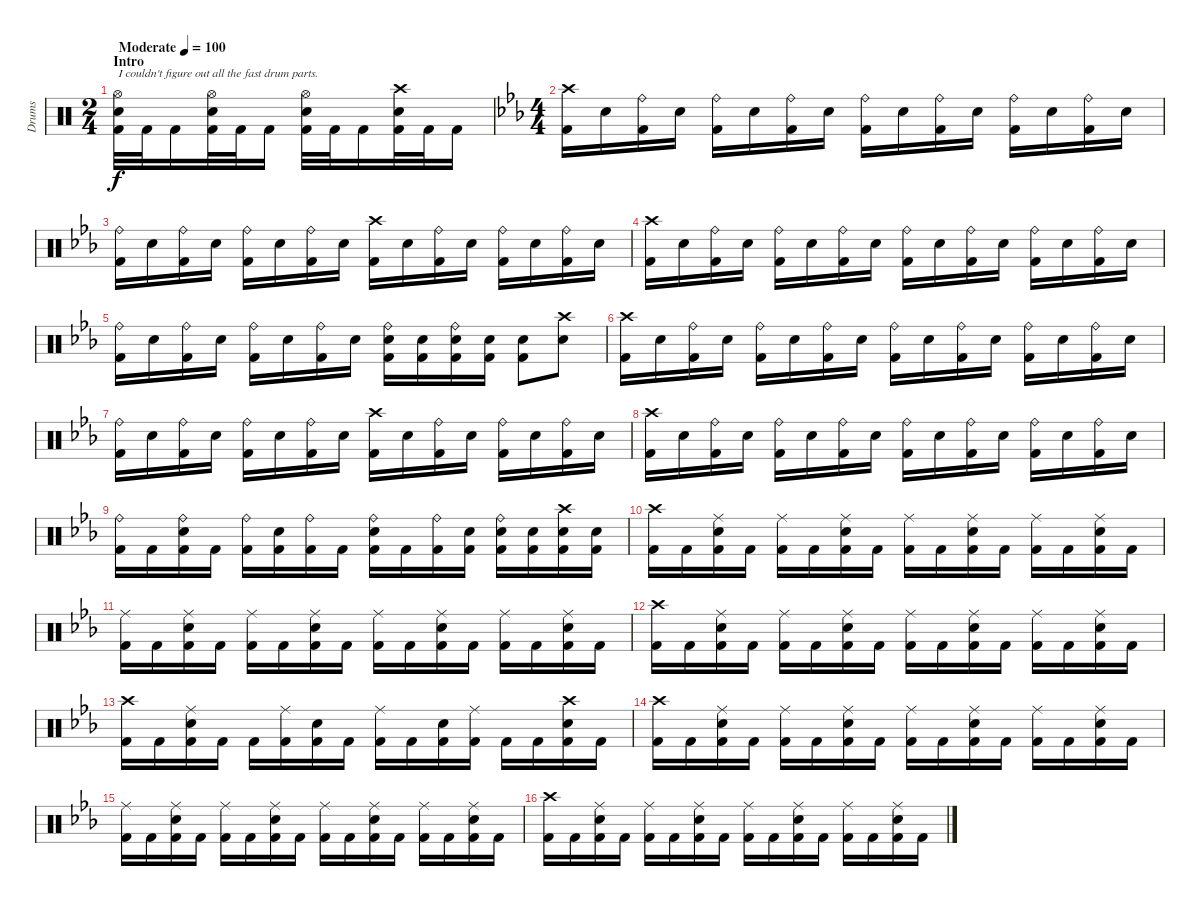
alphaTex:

\track ("Drums" "Drums") {instrument percussion}
\staff {score}
\articulation defaults
\ts (2 4)
\section ("" "Intro")
\tempo (100 "Moderate")
\clef neutral
\ks c
("Kick (hit) 2" "Snare (hit) 2" "Hi-Hat (open)").32{txt "I couldn't figure out all the fast drum parts." dy f} "Kick (hit) 2".32 "Kick (hit) 2".16 ("Kick (hit) 2" "Snare (hit) 2" "Hi-Hat (open)").32 "Kick (hit) 2".32 "Kick (hit) 2".16 ("Kick (hit) 2" "Snare (hit) 2" "Hi-Hat (open)").32 "Kick (hit) 2".32 "Kick (hit) 2".16 ("Kick (hit) 2" "Snare (hit) 2" "Crash high (hit)").32 "Kick (hit) 2".32 "Kick (hit) 2".16 |
\ts (4 4)
\ks eb
("Kick (hit) 2" "Crash high (hit)").16 "Snare (hit) 2".16 ("Kick (hit) 2" "Ride (bell)").16 "Snare (hit) 2".16 ("Kick (hit) 2" "Ride (bell)").16 "Snare (hit) 2".16 ("Kick (hit) 2" "Ride (bell)").16 "Snare (hit) 2".16 ("Kick (hit) 2" "Ride (bell)").16 "Snare (hit) 2".16 ("Kick (hit) 2" "Ride (bell)").16 "Snare (hit) 2".16 ("Kick (hit) 2" "Ride (bell)").16 "Snare (hit) 2".16 ("Kick (hit) 2" "Ride (bell)").16 "Snare (hit) 2".16 |
("Kick (hit) 2" "Ride (bell)").16 "Snare (hit) 2".16 ("Kick (hit) 2" "Ride (bell)").16 "Snare (hit) 2".16 ("Kick (hit) 2" "Ride (bell)").16 "Snare (hit) 2".16 ("Kick (hit) 2" "Ride (bell)").16 "Snare (hit) 2".16 ("Kick (hit) 2" "Crash high (hit)").16 "Snare (hit) 2".16 ("Kick (hit) 2" "Ride (bell)").16 "Snare (hit) 2".16 ("Kick (hit) 2" "Ride (bell)").16 "Snare (hit) 2".16 ("Kick (hit) 2" "Ride (bell)").16 "Snare (hit) 2".16 |
("Kick (hit) 2" "Crash high (hit)").16 "Snare (hit) 2".16 ("Kick (hit) 2" "Ride (bell)").16 "Snare (hit) 2".16 ("Kick (hit) 2" "Ride (bell)").16 "Snare (hit) 2".16 ("Kick (hit) 2" "Ride (bell)").16 "Snare (hit) 2".16 ("Kick (hit) 2" "Ride (bell)").16 "Snare (hit) 2".16 ("Kick (hit) 2" "Ride (bell)").16 "Snare (hit) 2".16 ("Kick (hit) 2" "Ride (bell)").16 "Snare (hit) 2".16 ("Kick (hit) 2" "Ride (bell)").16 "Snare (hit) 2".16 |
("Kick (hit) 2" "Ride (bell)").16 "Snare (hit) 2".16 ("Kick (hit) 2" "Ride (bell)").16 "Snare (hit) 2".16 ("Kick (hit) 2" "Ride (bell)").16 "Snare (hit) 2".16 ("Kick (hit) 2" "Ride (bell)").16 "Snare (hit) 2".16 ("Kick (hit) 2" "Ride (bell)" "Snare (hit) 2").16 ("Snare (hit) 2" "Kick (hit) 2").16 ("Kick (hit) 2" "Ride (bell)" "Snare (hit) 2").16 ("Snare (hit) 2" "Kick (hit) 2").16 ("Kick (hit) 2" "Snare (hit) 2").8 ("Snare (hit) 2" "Crash high (hit)").8 |
("Kick (hit) 2" "Crash high (hit)").16 "Snare (hit) 2".16 ("Kick (hit) 2" "Ride (bell)").16 "Snare (hit) 2".16 ("Kick (hit) 2" "Ride (bell)").16 "Snare (hit) 2".16 ("Kick (hit) 2" "Ride (bell)").16 "Snare (hit) 2".16 ("Kick (hit) 2" "Ride (bell)").16 "Snare (hit) 2".16 ("Kick (hit) 2" "Ride (bell)").16 "Snare (hit) 2".16 ("Kick (hit) 2" "Ride (bell)").16 "Snare (hit) 2".16 ("Kick (hit) 2" "Ride (bell)").16 "Snare (hit) 2".16 |
("Kick (hit) 2" "Ride (bell)").16 "Snare (hit) 2".16 ("Kick (hit) 2" "Ride (bell)").16 "Snare (hit) 2".16 ("Kick (hit) 2" "Ride (bell)").16 "Snare (hit) 2".16 ("Kick (hit) 2" "Ride (bell)").16 "Snare (hit) 2".16 ("Kick (hit) 2" "Crash high (hit)").16 "Snare (hit) 2".16 ("Kick (hit) 2" "Ride (bell)").16 "Snare (hit) 2".16 ("Kick (hit) 2" "Ride (bell)").16 "Snare (hit) 2".16 ("Kick (hit) 2" "Ride (bell)").16 "Snare (hit) 2".16 |
("Kick (hit) 2" "Crash high (hit)").16 "Snare (hit) 2".16 ("Kick (hit) 2" "Ride (bell)").16 "Snare (hit) 2".16 ("Kick (hit) 2" "Ride (bell)").16 "Snare (hit) 2".16 ("Kick (hit) 2" "Ride (bell)").16 "Snare (hit) 2".16 ("Kick (hit) 2" "Ride (bell)").16 "Snare (hit) 2".16 ("Kick (hit) 2" "Ride (bell)").16 "Snare (hit) 2".16 ("Kick (hit) 2" "Ride (bell)").16 "Snare (hit) 2".16 ("Kick (hit) 2" "Ride (bell)").16 "Snare (hit) 2".16 |
("Kick (hit) 2" "Ride (bell)").16 "Kick (hit) 2".16 ("Kick (hit) 2" "Ride (bell)" "Snare (hit) 2").16 "Kick (hit) 2".16 ("Kick (hit) 2" "Ride (bell)").16 ("Snare (hit) 2" "Kick (hit) 2").16 ("Kick (hit) 2" "Ride (bell)").16 "Kick (hit) 2".16 ("Kick (hit) 2" "Ride (bell)" "Snare (hit) 2").16 "Kick (hit) 2".16 ("Kick (hit) 2" "Ride (bell)").16 ("Snare (hit) 2" "Kick (hit) 2").16 ("Kick (hit) 2" "Ride (bell)" "Snare (hit) 2").16 ("Kick (hit) 2" "Snare (hit) 2").16 ("Kick (hit) 2" "Snare (hit) 2" "Crash high (hit)").16 ("Kick (hit) 2" "Snare (hit) 2").16 |
("Kick (hit) 2" "Crash high (hit)").16 "Kick (hit) 2".16 ("Kick (hit) 2" "Snare (hit) 2" "Ride (middle)").16 "Kick (hit) 2".16 ("Kick (hit) 2" "Ride (middle)").16 "Kick (hit) 2".16 ("Kick (hit) 2" "Snare (hit) 2" "Ride (middle)").16 "Kick (hit) 2".16 ("Kick (hit) 2" "Ride (middle)").16 "Kick (hit) 2".16 ("Kick (hit) 2" "Snare (hit) 2" "Ride (middle)").16 "Kick (hit) 2".16 ("Kick (hit) 2" "Ride (middle)").16 "Kick (hit) 2".16 ("Kick (hit) 2" "Snare (hit) 2" "Ride (middle)").16 "Kick (hit) 2".16 |
("Kick (hit) 2" "Ride (middle)").16 "Kick (hit) 2".16 ("Kick (hit) 2" "Snare (hit) 2" "Ride (middle)").16 "Kick (hit) 2".16 ("Kick (hit) 2" "Ride (middle)").16 "Kick (hit) 2".16 ("Kick (hit) 2" "Snare (hit) 2" "Ride (middle)").16 "Kick (hit) 2".16 ("Kick (hit) 2" "Ride (middle)").16 "Kick (hit) 2".16 ("Kick (hit) 2" "Snare (hit) 2" "Ride (middle)").16 "Kick (hit) 2".16 ("Kick (hit) 2" "Ride (middle)").16 "Kick (hit) 2".16 ("Kick (hit) 2" "Snare (hit) 2" "Ride (middle)").16 "Kick (hit) 2".16 |
("Kick (hit) 2" "Crash high (hit)").16 "Kick (hit) 2".16 ("Kick (hit) 2" "Snare (hit) 2" "Ride (middle)").16 "Kick (hit) 2".16 ("Kick (hit) 2" "Ride (middle)").16 "Kick (hit) 2".16 ("Kick (hit) 2" "Snare (hit) 2" "Ride (middle)").16 "Kick (hit) 2".16 ("Kick (hit) 2" "Ride (middle)").16 "Kick (hit) 2".16 ("Kick (hit) 2" "Snare (hit) 2" "Ride (middle)").16 "Kick (hit) 2".16 ("Kick (hit) 2" "Ride (middle)").16 "Kick (hit) 2".16 ("Kick (hit) 2" "Snare (hit) 2" "Ride (middle)").16 "Kick (hit) 2".16 |
("Kick (hit) 2" "Crash high (hit)").16 "Kick (hit) 2".16 ("Kick (hit) 2" "Snare (hit) 2" "Ride (middle)").16 "Kick (hit) 2".16 "Kick (hit) 2".16 ("Kick (hit) 2" "Ride (middle)").16 ("Kick (hit) 2" "Snare (hit) 2").16 "Kick (hit) 2".16 ("Kick (hit) 2" "Ride (middle)").16 "Kick (hit) 2".16 ("Kick (hit) 2" "Snare (hit) 2").16 ("Kick (hit) 2" "Ride (middle)").16 "Kick (hit) 2".16 "Kick (hit) 2".16 ("Kick (hit) 2" "Snare (hit) 2" "Crash high (hit)").16 "Kick (hit) 2".16 |
("Kick (hit) 2" "Crash high (hit)").16 "Kick (hit) 2".16 ("Kick (hit) 2" "Snare (hit) 2" "Ride (middle)").16 "Kick (hit) 2".16 ("Kick (hit) 2" "Ride (middle)").16 "Kick (hit) 2".16 ("Kick (hit) 2" "Snare (hit) 2" "Ride (middle)").16 "Kick (hit) 2".16 ("Kick (hit) 2" "Ride (middle)").16 "Kick (hit) 2".16 ("Kick (hit) 2" "Snare (hit) 2" "Ride (middle)").16 "Kick (hit) 2".16 ("Kick (hit) 2" "Ride (middle)").16 "Kick (hit) 2".16 ("Kick (hit) 2" "Snare (hit) 2" "Ride (middle)").16 "Kick (hit) 2".16 |
("Kick (hit) 2" "Ride (middle)").16 "Kick (hit) 2".16 ("Kick (hit) 2" "Snare (hit) 2" "Ride (middle)").16 "Kick (hit) 2".16 ("Kick (hit) 2" "Ride (middle)").16 "Kick (hit) 2".16 ("Kick (hit) 2" "Snare (hit) 2" "Ride (middle)").16 "Kick (hit) 2".16 ("Kick (hit) 2" "Ride (middle)").16 "Kick (hit) 2".16 ("Kick (hit) 2" "Snare (hit) 2" "Ride (middle)").16 "Kick (hit) 2".16 ("Kick (hit) 2" "Ride (middle)").16 "Kick (hit) 2".16 ("Kick (hit) 2" "Snare (hit) 2" "Ride (middle)").16 "Kick (hit) 2".16 |
("Kick (hit) 2" "Crash high (hit)").16 "Kick (hit) 2".16 ("Kick (hit) 2" "Snare (hit) 2" "Ride (middle)").16 "Kick (hit) 2".16 ("Kick (hit) 2" "Ride (middle)").16 "Kick (hit) 2".16 ("Kick (hit) 2" "Snare (hit) 2" "Ride (middle)").16 "Kick (hit) 2".16 ("Kick (hit) 2" "Ride (middle)").16 "Kick (hit) 2".16 ("Kick (hit) 2" "Snare (hit) 2" "Ride (middle)").16 "Kick (hit) 2".16 ("Kick (hit) 2" "Ride (middle)").16 "Kick (hit) 2".16 ("Kick (hit) 2" "Snare (hit) 2" "Ride (middle)").16 "Kick (hit) 2".16
